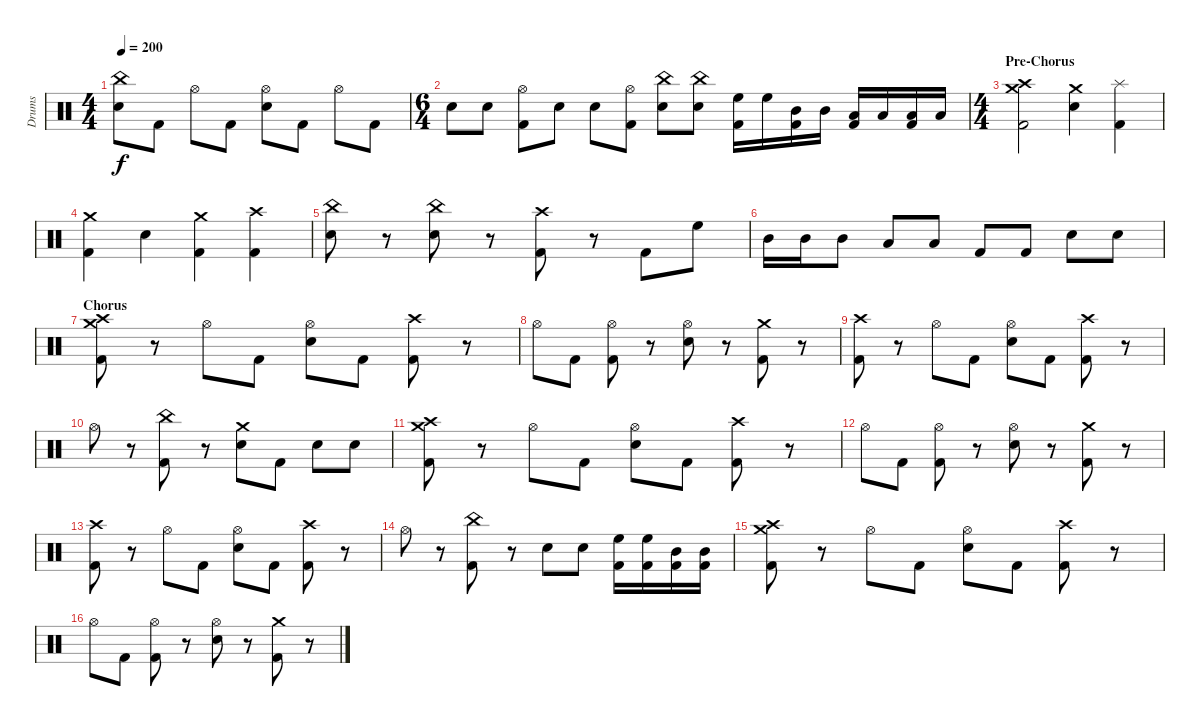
\track ("Drums" "Drums") {instrument percussion}
\staff {score}
\articulation defaults
\ts (4 4)
\tempo 200
\clef neutral
\ks c
("China (hit)" "Electric Snare (hit)").8{dy f} "Kick (hit) 2".8 "Hi-Hat (open)".8 "Kick (hit) 2".8 ("Hi-Hat (open)" "Electric Snare (hit)").8 "Kick (hit) 2".8 "Hi-Hat (open)".8 "Kick (hit) 2".8 |
\ts (6 4)
"Electric Snare (hit)".8 "Electric Snare (hit)".8 ("Hi-Hat (open)" "Kick (hit) 2").8 "Electric Snare (hit)".8 "Electric Snare (hit)".8 ("Hi-Hat (open)" "Kick (hit) 2").8 ("China (hit)" "Electric Snare (hit)").8 ("China (hit)" "Electric Snare (hit)").8 ("High Floor Tom (hit)" "Kick (hit) 2").16 "High Floor Tom (hit)".16 ("Mid Tom (hit)" "Kick (hit) 2").16 "Mid Tom (hit)".16 ("Low Tom (hit)" "Kick (hit) 2").16 "Low Tom (hit)".16 ("Low Floor Tom (hit)" "Kick (hit) 2").16 "Low Floor Tom (hit)".16 |
\ts (4 4)
\section ("" "Pre-Chorus")
("Crash medium (hit)" "Crash high (hit)" "Kick (hit) 2").2 ("Crash medium (hit)" "Electric Snare (hit)").4 ("Splash (hit)" "Kick (hit) 2").4 |
("Crash medium (hit)" "Kick (hit) 2").4 "Electric Snare (hit)".4 ("Crash medium (hit)" "Kick (hit) 2").4 ("Crash high (hit)" "Kick (hit) 2").4 |
("China (hit)" "Electric Snare (hit)").8 r.8 ("China (hit)" "Electric Snare (hit)").8 r.8 ("Crash high (hit)" "Kick (hit) 2").8 r.8 "Kick (hit) 2".8 "High Floor Tom (hit)".8 |
"Mid Tom (hit)".16 "Mid Tom (hit)".16 "Mid Tom (hit)".8 "Low Tom (hit)".8 "Low Tom (hit)".8 "Kick (hit) 2".8 "Kick (hit) 2".8 "Electric Snare (hit)".8 "Electric Snare (hit)".8 |
\section ("" "Chorus")
("Crash medium (hit)" "Crash high (hit)" "Kick (hit) 2").8 r.8 "Hi-Hat (open)".8 "Kick (hit) 2".8 ("Hi-Hat (open)" "Electric Snare (hit)").8 "Kick (hit) 2".8 ("Crash high (hit)" "Kick (hit) 2").8 r.8 |
"Hi-Hat (open)".8 "Kick (hit) 2".8 ("Hi-Hat (open)" "Kick (hit) 2").8 r.8 ("Hi-Hat (open)" "Electric Snare (hit)").8 r.8 ("Crash medium (hit)" "Kick (hit) 2").8 r.8 |
("Crash high (hit)" "Kick (hit) 2").8 r.8 "Hi-Hat (open)".8 "Kick (hit) 2".8 ("Hi-Hat (open)" "Electric Snare (hit)").8 "Kick (hit) 2".8 ("Crash high (hit)" "Kick (hit) 2").8 r.8 |
"Hi-Hat (open)".8 r.8 ("China (hit)" "Kick (hit) 2").8 r.8 ("Crash medium (hit)" "Electric Snare (hit)").8 "Kick (hit) 2".8 "Electric Snare (hit)".8 "Electric Snare (hit)".8 |
("Crash medium (hit)" "Crash high (hit)" "Kick (hit) 2").8 r.8 "Hi-Hat (open)".8 "Kick (hit) 2".8 ("Hi-Hat (open)" "Electric Snare (hit)").8 "Kick (hit) 2".8 ("Crash high (hit)" "Kick (hit) 2").8 r.8 |
"Hi-Hat (open)".8 "Kick (hit) 2".8 ("Hi-Hat (open)" "Kick (hit) 2").8 r.8 ("Hi-Hat (open)" "Electric Snare (hit)").8 r.8 ("Crash medium (hit)" "Kick (hit) 2").8 r.8 |
("Crash high (hit)" "Kick (hit) 2").8 r.8 "Hi-Hat (open)".8 "Kick (hit) 2".8 ("Hi-Hat (open)" "Electric Snare (hit)").8 "Kick (hit) 2".8 ("Crash high (hit)" "Kick (hit) 2").8 r.8 |
"Hi-Hat (open)".8 r.8 ("China (hit)" "Kick (hit) 2").8 r.8 "Electric Snare (hit)".8 "Electric Snare (hit)".8 ("High Floor Tom (hit)" "Kick (hit) 2").16 ("High Floor Tom (hit)" "Kick (hit) 2").16 ("Mid Tom (hit)" "Kick (hit) 2").16 ("Mid Tom (hit)" "Kick (hit) 2").16 |
("Crash medium (hit)" "Crash high (hit)" "Kick (hit) 2").8 r.8 "Hi-Hat (open)".8 "Kick (hit) 2".8 ("Hi-Hat (open)" "Electric Snare (hit)").8 "Kick (hit) 2".8 ("Crash high (hit)" "Kick (hit) 2").8 r.8 |
"Hi-Hat (open)".8 "Kick (hit) 2".8 ("Hi-Hat (open)" "Kick (hit) 2").8 r.8 ("Hi-Hat (open)" "Electric Snare (hit)").8 r.8 ("Crash medium (hit)" "Kick (hit) 2").8 r.8
